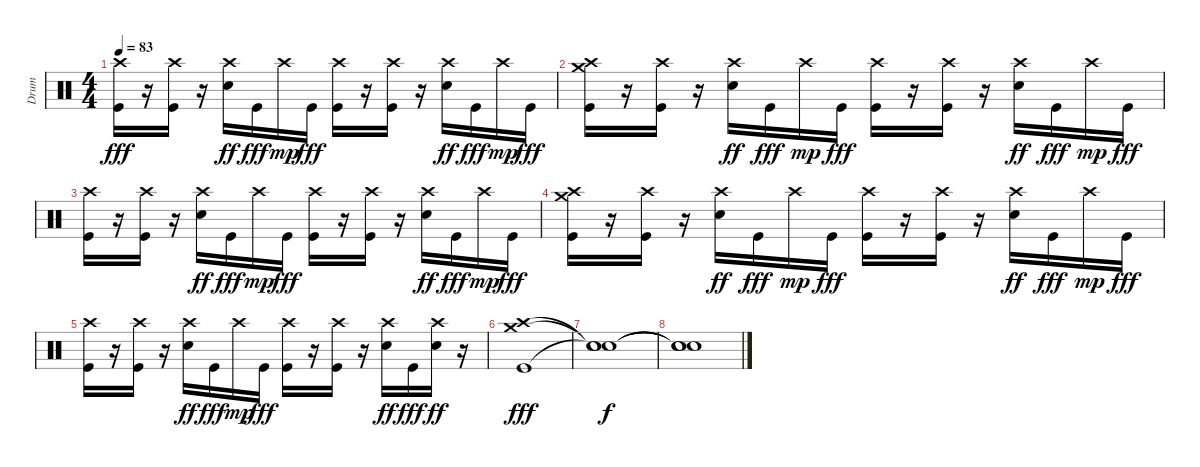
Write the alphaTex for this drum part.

\track ("Drum" "Drum") {instrument percussion}
\staff {score}
\articulation defaults
\ts (4 4)
\tempo 83
\clef neutral
\ks c
("Crash high (hit)" "Kick (hit)").16{dy fff} r.16 ("Crash high (hit)" "Kick (hit)").16 r.16 ("Crash high (hit)" "Snare (hit) 2").16{dy ff} "Kick (hit)".16{dy fff} "Crash high (hit)".16{dy mp} "Kick (hit)".16{dy fff} ("Crash high (hit)" "Kick (hit)").16 r.16 ("Crash high (hit)" "Kick (hit)").16 r.16 ("Crash high (hit)" "Snare (hit) 2").16{dy ff} "Kick (hit)".16{dy fff} "Crash high (hit)".16{dy mp} "Kick (hit)".16{dy fff} |
("Crash medium (hit)" "Crash high (hit)" "Kick (hit)").16 r.16 ("Crash high (hit)" "Kick (hit)").16 r.16 ("Crash high (hit)" "Snare (hit) 2").16{dy ff} "Kick (hit)".16{dy fff} "Crash high (hit)".16{dy mp} "Kick (hit)".16{dy fff} ("Crash high (hit)" "Kick (hit)").16 r.16 ("Crash high (hit)" "Kick (hit)").16 r.16 ("Crash high (hit)" "Snare (hit) 2").16{dy ff} "Kick (hit)".16{dy fff} "Crash high (hit)".16{dy mp} "Kick (hit)".16{dy fff} |
("Crash high (hit)" "Kick (hit)").16 r.16 ("Crash high (hit)" "Kick (hit)").16 r.16 ("Crash high (hit)" "Snare (hit) 2").16{dy ff} "Kick (hit)".16{dy fff} "Crash high (hit)".16{dy mp} "Kick (hit)".16{dy fff} ("Crash high (hit)" "Kick (hit)").16 r.16 ("Crash high (hit)" "Kick (hit)").16 r.16 ("Crash high (hit)" "Snare (hit) 2").16{dy ff} "Kick (hit)".16{dy fff} "Crash high (hit)".16{dy mp} "Kick (hit)".16{dy fff} |
("Crash medium (hit)" "Crash high (hit)" "Kick (hit)").16 r.16 ("Crash high (hit)" "Kick (hit)").16 r.16 ("Crash high (hit)" "Snare (hit) 2").16{dy ff} "Kick (hit)".16{dy fff} "Crash high (hit)".16{dy mp} "Kick (hit)".16{dy fff} ("Crash high (hit)" "Kick (hit)").16 r.16 ("Crash high (hit)" "Kick (hit)").16 r.16 ("Crash high (hit)" "Snare (hit) 2").16{dy ff} "Kick (hit)".16{dy fff} "Crash high (hit)".16{dy mp} "Kick (hit)".16{dy fff} |
("Crash high (hit)" "Kick (hit)").16 r.16 ("Crash high (hit)" "Kick (hit)").16 r.16 ("Crash high (hit)" "Snare (hit) 2").16{dy ff} "Kick (hit)".16{dy fff} "Crash high (hit)".16{dy mp} "Kick (hit)".16{dy fff} ("Crash high (hit)" "Kick (hit)").16 r.16 ("Crash high (hit)" "Kick (hit)").16 r.16 ("Crash high (hit)" "Snare (hit) 2").16{dy ff} "Kick (hit)".16{dy fff volume 16} ("Crash high (hit)" "Snare (hit) 2").16{dy ff volume 13} r.16 |
("Crash medium (hit)" "Crash high (hit)" "Kick (hit)").1{dy fff} |
("Snare (hit)"{t} "Snare (hit)"{t} "Snare (hit)"{t}).1{dy f} |
("Snare (hit)"{t} "Snare (hit)"{t} "Snare (hit)"{t}).1
